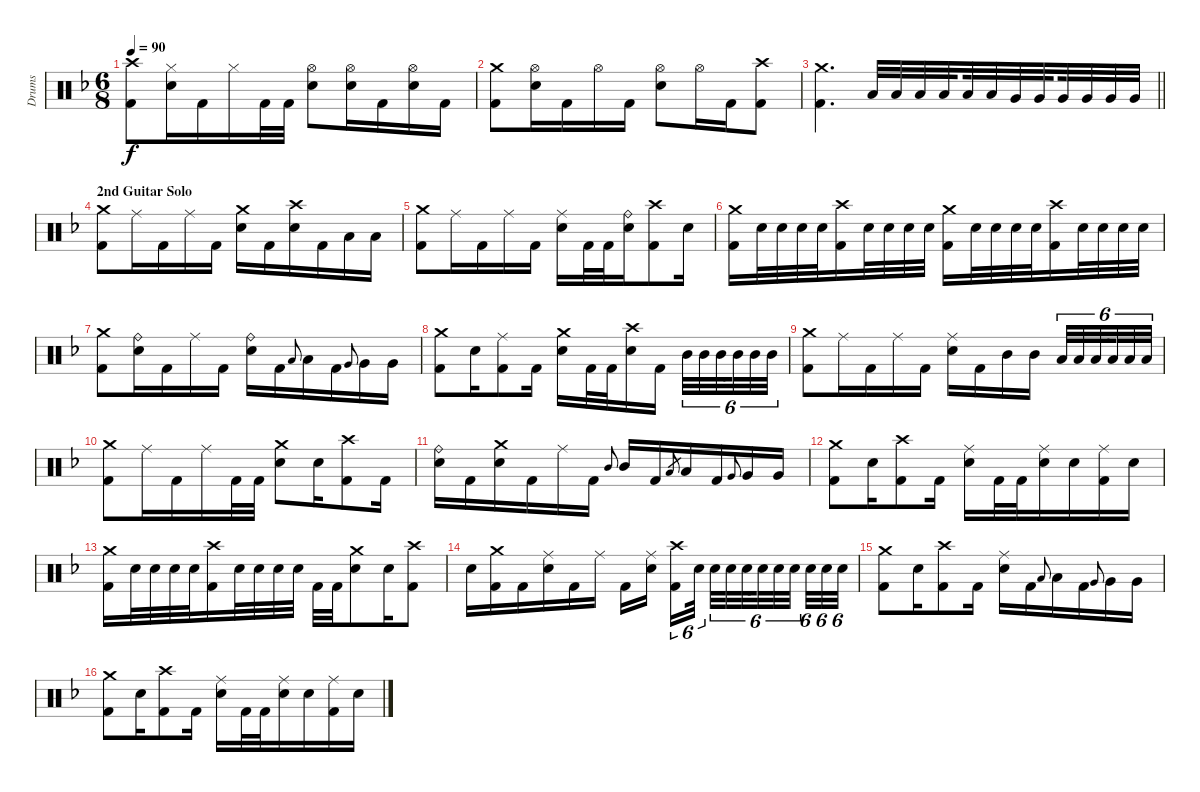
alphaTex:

\track ("Drums" "Drums") {instrument percussion}
\staff {score}
\articulation defaults
\ts (6 8)
\tempo 90
\clef neutral
\ks dminor
("Crash high (hit)" "Kick (hit) 2").8{dy f} ("Hi-Hat (closed)" "Snare (hit) 2").16 "Kick (hit) 2".16 "Hi-Hat (closed)".16 "Kick (hit) 2".32 "Kick (hit) 2".32 ("Hi-Hat (open)" "Snare (hit) 2").8 ("Hi-Hat (open)" "Snare (hit) 2").16 "Kick (hit) 2".16 ("Hi-Hat (open)" "Snare (hit) 2").16 "Kick (hit) 2".16 |
("Crash medium (hit)" "Kick (hit) 2").8 ("Hi-Hat (open)" "Snare (hit) 2").16 "Kick (hit) 2".16 "Hi-Hat (open)".16 "Kick (hit) 2".16 ("Hi-Hat (open)" "Snare (hit) 2").8 "Hi-Hat (open)".16 "Kick (hit) 2".16 ("Crash high (hit)" "Kick (hit) 2").8 |
\barLineRight lightlight
("Crash medium (hit)" "Kick (hit) 2").4{d} "Low Tom (hit)".32 "Low Tom (hit)".32 "Low Tom (hit)".32 "Low Tom (hit)".32{beam splitsecondary} "Low Tom (hit)".32 "Low Tom (hit)".32 "Very Low Tom (hit)".32 "Very Low Tom (hit)".32{beam splitsecondary} "Very Low Tom (hit)".32 "Very Low Tom (hit)".32 "Very Low Tom (hit)".32 "Very Low Tom (hit)".32 |
\section ("" "2nd Guitar Solo")
("Crash medium (hit)" "Kick (hit) 2").8 "Ride (middle)".16 "Kick (hit) 2".16 "Ride (middle)".16 "Kick (hit) 2".16 ("Crash medium (hit)" "Snare (hit) 2").16 "Kick (hit) 2".16 ("Crash high (hit)" "Snare (hit) 2").16 "Kick (hit) 2".16 "Low Tom (hit)".16 "Low Tom (hit)".16 |
("Crash medium (hit)" "Kick (hit) 2").8 "Ride (middle)".16 "Kick (hit) 2".16 "Ride (middle)".16 "Kick (hit) 2".16 ("Ride (middle)" "Snare (hit) 2").16 "Kick (hit) 2".32 "Kick (hit) 2".32 ("Ride (bell)" "Snare (hit) 2").16 ("Crash high (hit)" "Kick (hit) 2").8 "Snare (hit) 2".16 |
("Crash medium (hit)" "Kick (hit) 2").16 "Snare (hit) 2".32 "Snare (hit) 2".32 "Snare (hit) 2".32 "Snare (hit) 2".32 ("Crash high (hit)" "Kick (hit) 2").16 "Snare (hit) 2".32 "Snare (hit) 2".32 "Snare (hit) 2".32 "Snare (hit) 2".32 ("Crash medium (hit)" "Kick (hit) 2").16 "Snare (hit) 2".32 "Snare (hit) 2".32 "Snare (hit) 2".32 "Snare (hit) 2".32 ("Crash high (hit)" "Kick (hit) 2").16 "Snare (hit) 2".32 "Snare (hit) 2".32 "Snare (hit) 2".32 "Snare (hit) 2".32 |
("Crash medium (hit)" "Kick (hit) 2").8 ("Ride (bell)" "Snare (hit) 2").16 "Kick (hit) 2".16 "Ride (middle)".16 "Kick (hit) 2".16 ("Ride (bell)" "Snare (hit) 2").16 "Kick (hit) 2".16 "Low Tom (hit)".8{gr onbeat} "Low Tom (hit)".16 "Kick (hit) 2".16 "Very Low Tom (hit)".8{gr onbeat} "Very Low Tom (hit)".16 "Very Low Tom (hit)".16 |
("Crash medium (hit)" "Kick (hit) 2").8 "Snare (hit) 2".16 ("Ride (middle)" "Kick (hit) 2").8 "Kick (hit) 2".16 ("Crash medium (hit)" "Snare (hit) 2").16 "Kick (hit) 2".32 "Kick (hit) 2".32 ("Crash high (hit)" "Snare (hit) 2").16 "Kick (hit) 2".16{beam splitsecondary} "Mid Tom (hit)".32{tu (6 4)} "Mid Tom (hit)".32{tu (6 4)} "Mid Tom (hit)".32{tu (6 4) beam splitsecondary} "Mid Tom (hit)".32{tu (6 4)} "Mid Tom (hit)".32{tu (6 4)} "Mid Tom (hit)".32{tu (6 4)} |
("Crash medium (hit)" "Kick (hit) 2").8 "Ride (middle)".16 "Kick (hit) 2".16 "Ride (middle)".16 "Kick (hit) 2".16 ("Ride (middle)" "Snare (hit) 2").16 "Kick (hit) 2".16 "Mid Tom (hit)".16 "Mid Tom (hit)".16{beam splitsecondary} "Low Tom (hit)".32{tu (6 4)} "Low Tom (hit)".32{tu (6 4)} "Low Tom (hit)".32{tu (6 4) beam splitsecondary} "Low Tom (hit)".32{tu (6 4)} "Low Tom (hit)".32{tu (6 4)} "Low Tom (hit)".32{tu (6 4)} |
("Crash medium (hit)" "Kick (hit) 2").8 "Ride (middle)".16 "Kick (hit) 2".16 "Ride (middle)".16 "Kick (hit) 2".32 "Kick (hit) 2".32 ("Crash medium (hit)" "Snare (hit) 2").8 "Snare (hit) 2".16 ("Crash high (hit)" "Kick (hit) 2").8 "Kick (hit) 2".16 |
("Ride (bell)" "Snare (hit) 2").16 "Kick (hit) 2".16 ("Crash medium (hit)" "Snare (hit) 2").16 "Kick (hit) 2".16 "Ride (middle)".16 "Kick (hit) 2".16 "Mid Tom (hit)".8{gr onbeat} "Mid Tom (hit)".16 "Kick (hit) 2".16 "Low Tom (hit)".8{gr} "Low Tom (hit)".16 "Kick (hit) 2".16 "Very Low Tom (hit)".8{gr onbeat} "Very Low Tom (hit)".16 "Very Low Tom (hit)".16 |
("Crash medium (hit)" "Kick (hit) 2").8 "Snare (hit) 2".16 ("Crash high (hit)" "Kick (hit) 2").8 "Kick (hit) 2".16 ("Ride (middle)" "Snare (hit) 2").16 "Kick (hit) 2".32 "Kick (hit) 2".32 ("Ride (middle)" "Snare (hit) 2").16 "Snare (hit) 2".16 ("Ride (middle)" "Kick (hit) 2").16 "Snare (hit) 2".16 |
("Crash medium (hit)" "Kick (hit) 2").16 "Snare (hit) 2".32 "Snare (hit) 2".32 "Snare (hit) 2".32 "Snare (hit) 2".32 ("Crash high (hit)" "Kick (hit) 2").16 "Snare (hit) 2".32 "Snare (hit) 2".32 "Snare (hit) 2".32 "Snare (hit) 2".32 "Kick (hit) 2".32 "Kick (hit) 2".32 ("Crash medium (hit)" "Snare (hit) 2").8 "Snare (hit) 2".16 ("Crash high (hit)" "Kick (hit) 2").8 |
"Snare (hit) 2".16 ("Crash medium (hit)" "Kick (hit) 2").16 "Kick (hit) 2".16 ("Ride (middle)" "Snare (hit) 2").16 "Kick (hit) 2".16 "Ride (middle)".16 "Kick (hit) 2".16 ("Ride (middle)" "Snare (hit) 2").16{beam splitsecondary} ("Crash high (hit)" "Kick (hit) 2").16{tu (6 4)} "Snare (hit) 2".32{tu (6 4) beam splitsecondary} "Snare (hit) 2".32{tu (6 4)} "Snare (hit) 2".32{tu (6 4)} "Snare (hit) 2".32{tu (6 4) beam splitsecondary} "Snare (hit) 2".32{tu (6 4)} "Snare (hit) 2".32{tu (6 4)} "Snare (hit) 2".32{tu (6 4) beam splitsecondary} "Snare (hit) 2".32{tu (6 4)} "Snare (hit) 2".32{tu (6 4)} "Snare (hit) 2".32{tu (6 4)} |
("Crash medium (hit)" "Kick (hit) 2").8 "Snare (hit) 2".16 ("Crash high (hit)" "Kick (hit) 2").8 "Kick (hit) 2".16 ("Ride (middle)" "Snare (hit) 2").16 "Kick (hit) 2".16 "Low Tom (hit)".8{gr onbeat} "Low Tom (hit)".16 "Kick (hit) 2".16 "Very Low Tom (hit)".8{gr onbeat} "Very Low Tom (hit)".16 "Very Low Tom (hit)".16 |
("Crash medium (hit)" "Kick (hit) 2").8 "Snare (hit) 2".16 ("Crash high (hit)" "Kick (hit) 2").8 "Kick (hit) 2".16 ("Ride (middle)" "Snare (hit) 2").16 "Kick (hit) 2".32 "Kick (hit) 2".32 ("Ride (middle)" "Snare (hit) 2").16 "Snare (hit) 2".16 ("Ride (middle)" "Kick (hit) 2").16 "Snare (hit) 2".16
